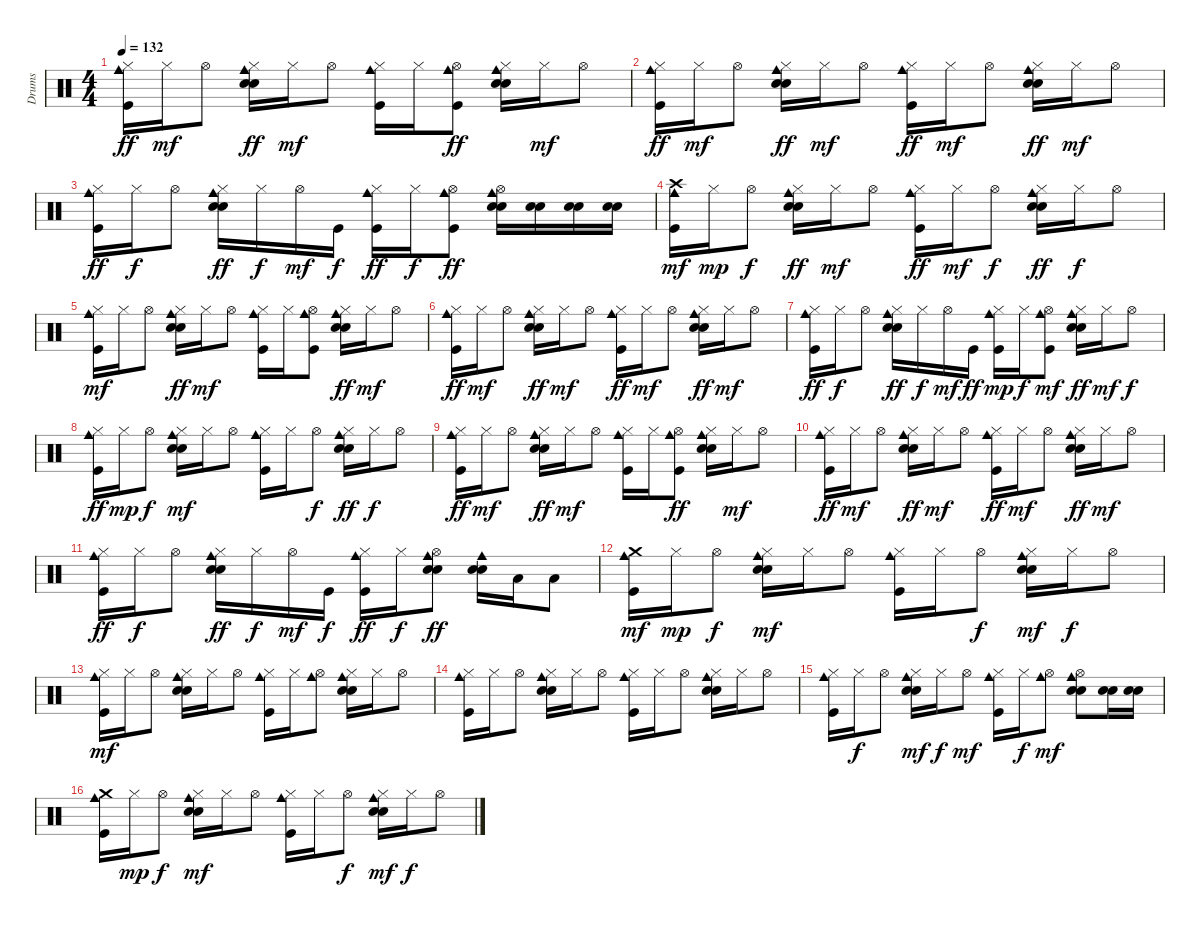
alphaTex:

\track ("Drums" "Drums") {instrument percussion}
\staff {score}
\articulation defaults
\ts (4 4)
\tempo 132
\clef neutral
\ks c
("Hi-Hat (closed)" "Kick (hit)" "Cowbell medium (hit)").16{dy ff} "Hi-Hat (closed)".16{dy mf} "Hi-Hat (open)".8 ("Hi-Hat (closed)" "Electric Snare (hit)" "Snare (hit) 2" "Cowbell medium (hit)").16{dy ff} "Hi-Hat (closed)".16{dy mf} "Hi-Hat (open)".8 ("Hi-Hat (closed)" "Kick (hit)" "Cowbell medium (hit)").16 "Hi-Hat (closed)".16 ("Hi-Hat (open)" "Kick (hit)" "Cowbell medium (hit)").8{dy ff} ("Hi-Hat (closed)" "Electric Snare (hit)" "Snare (hit) 2" "Cowbell medium (hit)").16 "Hi-Hat (closed)".16{dy mf} "Hi-Hat (open)".8 |
("Hi-Hat (closed)" "Kick (hit)" "Cowbell medium (hit)").16{dy ff} "Hi-Hat (closed)".16{dy mf} "Hi-Hat (open)".8 ("Hi-Hat (closed)" "Electric Snare (hit)" "Snare (hit) 2" "Cowbell medium (hit)").16{dy ff} "Hi-Hat (closed)".16{dy mf} "Hi-Hat (open)".8 ("Hi-Hat (closed)" "Kick (hit)" "Cowbell medium (hit)").16{dy ff} "Hi-Hat (closed)".16{dy mf} "Hi-Hat (open)".8 ("Hi-Hat (closed)" "Electric Snare (hit)" "Snare (hit) 2" "Cowbell medium (hit)").16{dy ff} "Hi-Hat (closed)".16{dy mf} "Hi-Hat (open)".8 |
("Hi-Hat (closed)" "Kick (hit)" "Cowbell medium (hit)").16{dy ff} "Hi-Hat (closed)".16{dy f} "Hi-Hat (open)".8 ("Hi-Hat (closed)" "Electric Snare (hit)" "Snare (hit) 2" "Cowbell medium (hit)").16{dy ff} "Hi-Hat (closed)".16{dy f} "Hi-Hat (open)".16{dy mf} "Kick (hit)".16{dy f} ("Hi-Hat (closed)" "Kick (hit)" "Cowbell medium (hit)").16{dy ff} "Hi-Hat (closed)".16{dy f} ("Hi-Hat (open)" "Kick (hit)" "Cowbell medium (hit)").8{dy ff} ("Hi-Hat (open)" "Electric Snare (hit)" "Snare (hit) 2" "Cowbell medium (hit)").16 ("Electric Snare (hit)" "Snare (hit) 2").16 ("Electric Snare (hit)" "Snare (hit) 2").16 ("Electric Snare (hit)" "Snare (hit) 2").16 |
("Kick (hit)" "Cowbell medium (hit)" "Crash high (hit)").16{dy mf} "Hi-Hat (closed)".16{dy mp} "Hi-Hat (open)".8{dy f} ("Hi-Hat (closed)" "Electric Snare (hit)" "Snare (hit) 2" "Cowbell medium (hit)").16{dy ff} "Hi-Hat (closed)".16{dy mf} "Hi-Hat (open)".8 ("Hi-Hat (closed)" "Kick (hit)" "Cowbell medium (hit)").16{dy ff} "Hi-Hat (closed)".16{dy mf} "Hi-Hat (open)".8{dy f} ("Hi-Hat (closed)" "Electric Snare (hit)" "Snare (hit) 2" "Cowbell medium (hit)").16{dy ff} "Hi-Hat (closed)".16{dy f} "Hi-Hat (open)".8 |
("Hi-Hat (closed)" "Kick (hit)" "Cowbell medium (hit)").16{dy mf} "Hi-Hat (closed)".16 "Hi-Hat (open)".8 ("Hi-Hat (closed)" "Electric Snare (hit)" "Snare (hit) 2" "Cowbell medium (hit)").16{dy ff} "Hi-Hat (closed)".16{dy mf} "Hi-Hat (open)".8 ("Hi-Hat (closed)" "Kick (hit)" "Cowbell medium (hit)").16 "Hi-Hat (closed)".16 ("Hi-Hat (open)" "Kick (hit)" "Cowbell medium (hit)").8 ("Hi-Hat (closed)" "Electric Snare (hit)" "Snare (hit) 2" "Cowbell medium (hit)").16{dy ff} "Hi-Hat (closed)".16{dy mf} "Hi-Hat (open)".8 |
("Hi-Hat (closed)" "Kick (hit)" "Cowbell medium (hit)").16{dy ff} "Hi-Hat (closed)".16{dy mf} "Hi-Hat (open)".8 ("Hi-Hat (closed)" "Electric Snare (hit)" "Snare (hit) 2" "Cowbell medium (hit)").16{dy ff} "Hi-Hat (closed)".16{dy mf} "Hi-Hat (open)".8 ("Hi-Hat (closed)" "Kick (hit)" "Cowbell medium (hit)").16{dy ff} "Hi-Hat (closed)".16{dy mf} "Hi-Hat (open)".8 ("Hi-Hat (closed)" "Electric Snare (hit)" "Snare (hit) 2" "Cowbell medium (hit)").16{dy ff} "Hi-Hat (closed)".16{dy mf} "Hi-Hat (open)".8 |
("Hi-Hat (closed)" "Kick (hit)" "Cowbell medium (hit)").16{dy ff} "Hi-Hat (closed)".16{dy f} "Hi-Hat (open)".8 ("Hi-Hat (closed)" "Electric Snare (hit)" "Snare (hit) 2" "Cowbell medium (hit)").16{dy ff} "Hi-Hat (closed)".16{dy f} "Hi-Hat (open)".16{dy mf} "Kick (hit)".16{dy ff} ("Hi-Hat (closed)" "Kick (hit)" "Cowbell medium (hit)").16{dy mp} "Hi-Hat (closed)".16{dy f} ("Hi-Hat (open)" "Kick (hit)" "Cowbell medium (hit)").8{dy mf} ("Hi-Hat (closed)" "Electric Snare (hit)" "Snare (hit) 2" "Cowbell medium (hit)").16{dy ff} "Hi-Hat (closed)".16{dy mf} "Hi-Hat (open)".8{dy f} |
("Hi-Hat (closed)" "Kick (hit)" "Cowbell medium (hit)").16{dy ff} "Hi-Hat (closed)".16{dy mp} "Hi-Hat (open)".8{dy f} ("Hi-Hat (closed)" "Electric Snare (hit)" "Snare (hit) 2" "Cowbell medium (hit)").16{dy mf} "Hi-Hat (closed)".16 "Hi-Hat (open)".8 ("Hi-Hat (closed)" "Kick (hit)" "Cowbell medium (hit)").16 "Hi-Hat (closed)".16 "Hi-Hat (open)".8{dy f} ("Hi-Hat (closed)" "Electric Snare (hit)" "Snare (hit) 2" "Cowbell medium (hit)").16{dy ff} "Hi-Hat (closed)".16{dy f} "Hi-Hat (open)".8 |
("Hi-Hat (closed)" "Kick (hit)" "Cowbell medium (hit)").16{dy ff} "Hi-Hat (closed)".16{dy mf} "Hi-Hat (open)".8 ("Hi-Hat (closed)" "Electric Snare (hit)" "Snare (hit) 2" "Cowbell medium (hit)").16{dy ff} "Hi-Hat (closed)".16{dy mf} "Hi-Hat (open)".8 ("Hi-Hat (closed)" "Kick (hit)" "Cowbell medium (hit)").16 "Hi-Hat (closed)".16 ("Hi-Hat (open)" "Kick (hit)" "Cowbell medium (hit)").8{dy ff} ("Hi-Hat (closed)" "Electric Snare (hit)" "Snare (hit) 2" "Cowbell medium (hit)").16 "Hi-Hat (closed)".16{dy mf} "Hi-Hat (open)".8 |
("Hi-Hat (closed)" "Kick (hit)" "Cowbell medium (hit)").16{dy ff} "Hi-Hat (closed)".16{dy mf} "Hi-Hat (open)".8 ("Hi-Hat (closed)" "Electric Snare (hit)" "Snare (hit) 2" "Cowbell medium (hit)").16{dy ff} "Hi-Hat (closed)".16{dy mf} "Hi-Hat (open)".8 ("Hi-Hat (closed)" "Kick (hit)" "Cowbell medium (hit)").16{dy ff} "Hi-Hat (closed)".16{dy mf} "Hi-Hat (open)".8 ("Hi-Hat (closed)" "Electric Snare (hit)" "Snare (hit) 2" "Cowbell medium (hit)").16{dy ff} "Hi-Hat (closed)".16{dy mf} "Hi-Hat (open)".8 |
("Hi-Hat (closed)" "Kick (hit)" "Cowbell medium (hit)").16{dy ff} "Hi-Hat (closed)".16{dy f} "Hi-Hat (open)".8 ("Hi-Hat (closed)" "Electric Snare (hit)" "Snare (hit) 2" "Cowbell medium (hit)").16{dy ff} "Hi-Hat (closed)".16{dy f} "Hi-Hat (open)".16{dy mf} "Kick (hit)".16{dy f} ("Hi-Hat (closed)" "Kick (hit)" "Cowbell medium (hit)").16{dy ff} "Hi-Hat (closed)".16{dy f} ("Hi-Hat (open)" "Electric Snare (hit)" "Snare (hit) 2" "Cowbell medium (hit)").8{dy ff} ("Electric Snare (hit)" "Snare (hit) 2" "Cowbell medium (hit)").16 "Low Tom (hit)".16 "Low Floor Tom (hit)".8 |
("Kick (hit)" "Cowbell medium (hit)" "Crash medium (hit)").16{dy mf} "Hi-Hat (closed)".16{dy mp} "Hi-Hat (open)".8{dy f} ("Hi-Hat (closed)" "Electric Snare (hit)" "Snare (hit) 2" "Cowbell medium (hit)").16{dy mf} "Hi-Hat (closed)".16 "Hi-Hat (open)".8 ("Hi-Hat (closed)" "Kick (hit)" "Cowbell medium (hit)").16 "Hi-Hat (closed)".16 "Hi-Hat (open)".8{dy f} ("Hi-Hat (closed)" "Electric Snare (hit)" "Snare (hit) 2" "Cowbell medium (hit)").16{dy mf} "Hi-Hat (closed)".16{dy f} "Hi-Hat (open)".8 |
("Hi-Hat (closed)" "Kick (hit)" "Cowbell medium (hit)").16{dy mf} "Hi-Hat (closed)".16 "Hi-Hat (open)".8 ("Hi-Hat (closed)" "Electric Snare (hit)" "Snare (hit) 2" "Cowbell medium (hit)").16 "Hi-Hat (closed)".16 "Hi-Hat (open)".8 ("Hi-Hat (closed)" "Kick (hit)" "Cowbell medium (hit)").16 "Hi-Hat (closed)".16 ("Hi-Hat (open)" "Cowbell medium (hit)").8 ("Hi-Hat (closed)" "Electric Snare (hit)" "Snare (hit) 2" "Cowbell medium (hit)").16 "Hi-Hat (closed)".16 "Hi-Hat (open)".8 |
("Hi-Hat (closed)" "Kick (hit)" "Cowbell medium (hit)").16 "Hi-Hat (closed)".16 "Hi-Hat (open)".8 ("Hi-Hat (closed)" "Electric Snare (hit)" "Snare (hit) 2" "Cowbell medium (hit)").16 "Hi-Hat (closed)".16 "Hi-Hat (open)".8 ("Hi-Hat (closed)" "Kick (hit)" "Cowbell medium (hit)").16 "Hi-Hat (closed)".16 "Hi-Hat (open)".8 ("Hi-Hat (closed)" "Electric Snare (hit)" "Snare (hit) 2" "Cowbell medium (hit)").16 "Hi-Hat (closed)".16 "Hi-Hat (open)".8 |
("Hi-Hat (closed)" "Kick (hit)" "Cowbell medium (hit)").16 "Hi-Hat (closed)".16{dy f} "Hi-Hat (open)".8 ("Hi-Hat (closed)" "Electric Snare (hit)" "Snare (hit) 2" "Cowbell medium (hit)").16{dy mf} "Hi-Hat (closed)".16{dy f} "Hi-Hat (open)".8{dy mf} ("Hi-Hat (closed)" "Kick (hit)" "Cowbell medium (hit)").16 "Hi-Hat (closed)".16{dy f} ("Hi-Hat (open)" "Cowbell medium (hit)").8{dy mf} ("Hi-Hat (open)" "Electric Snare (hit)" "Snare (hit) 2" "Cowbell medium (hit)").8 ("Electric Snare (hit)" "Snare (hit) 2").16 ("Electric Snare (hit)" "Snare (hit) 2").16 |
("Kick (hit)" "Cowbell medium (hit)" "Crash medium (hit)").16 "Hi-Hat (closed)".16{dy mp} "Hi-Hat (open)".8{dy f} ("Hi-Hat (closed)" "Electric Snare (hit)" "Snare (hit) 2" "Cowbell medium (hit)").16{dy mf} "Hi-Hat (closed)".16 "Hi-Hat (open)".8 ("Hi-Hat (closed)" "Kick (hit)" "Cowbell medium (hit)").16 "Hi-Hat (closed)".16 "Hi-Hat (open)".8{dy f} ("Hi-Hat (closed)" "Electric Snare (hit)" "Snare (hit) 2" "Cowbell medium (hit)").16{dy mf} "Hi-Hat (closed)".16{dy f} "Hi-Hat (open)".8
